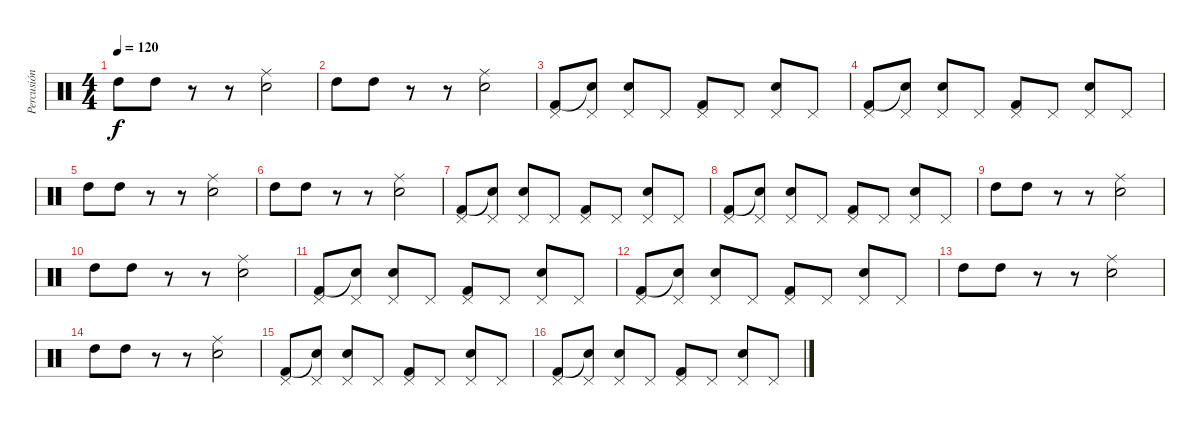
\track ("Percusión" "Percusión") {instrument percussion}
\staff {score}
\articulation defaults
\ts (4 4)
\tempo 120
\clef neutral
\ks c "High Tom (hit)".8{dy f} "High Tom (hit)".8
r.8 r.8 ("Snare (hit) 2" "Ride (middle)").2 |
"High Tom (hit)".8 "High Tom (hit)".8 r.8 r.8 ("Snare (hit) 2" "Ride (middle)").2 |
("Pedal Hi-Hat (hit)" "Kick (hit) 2").8 ("Pedal Hi-Hat (hit)" "Snare (hit)"{t}).8 ("Pedal Hi-Hat (hit)" "Snare (hit) 2").8 "Pedal Hi-Hat (hit)".8 ("Pedal Hi-Hat (hit)" "Kick (hit) 2").8 "Pedal Hi-Hat (hit)".8 ("Pedal Hi-Hat (hit)" "Snare (hit) 2").8 "Pedal Hi-Hat (hit)".8 |
("Pedal Hi-Hat (hit)" "Kick (hit) 2").8 ("Pedal Hi-Hat (hit)" "Snare (hit)"{t}).8 ("Pedal Hi-Hat (hit)" "Snare (hit) 2").8 "Pedal Hi-Hat (hit)".8 ("Pedal Hi-Hat (hit)" "Kick (hit) 2").8 "Pedal Hi-Hat (hit)".8 ("Pedal Hi-Hat (hit)" "Snare (hit) 2").8 "Pedal Hi-Hat (hit)".8 |
"High Tom (hit)".8 "High Tom (hit)".8 r.8 r.8 ("Snare (hit) 2" "Ride (middle)").2 |
"High Tom (hit)".8 "High Tom (hit)".8 r.8 r.8 ("Snare (hit) 2" "Ride (middle)").2 |
("Pedal Hi-Hat (hit)" "Kick (hit) 2").8 ("Pedal Hi-Hat (hit)" "Snare (hit)"{t}).8 ("Pedal Hi-Hat (hit)" "Snare (hit) 2").8 "Pedal Hi-Hat (hit)".8 ("Pedal Hi-Hat (hit)" "Kick (hit) 2").8 "Pedal Hi-Hat (hit)".8 ("Pedal Hi-Hat (hit)" "Snare (hit) 2").8 "Pedal Hi-Hat (hit)".8 |
("Pedal Hi-Hat (hit)" "Kick (hit) 2").8 ("Pedal Hi-Hat (hit)" "Snare (hit)"{t}).8 ("Pedal Hi-Hat (hit)" "Snare (hit) 2").8 "Pedal Hi-Hat (hit)".8 ("Pedal Hi-Hat (hit)" "Kick (hit) 2").8 "Pedal Hi-Hat (hit)".8 ("Pedal Hi-Hat (hit)" "Snare (hit) 2").8 "Pedal Hi-Hat (hit)".8 |
"High Tom (hit)".8 "High Tom (hit)".8 r.8 r.8 ("Snare (hit) 2" "Ride (middle)").2 |
"High Tom (hit)".8 "High Tom (hit)".8 r.8 r.8 ("Snare (hit) 2" "Ride (middle)").2 |
("Pedal Hi-Hat (hit)" "Kick (hit) 2").8 ("Pedal Hi-Hat (hit)" "Snare (hit)"{t}).8 ("Pedal Hi-Hat (hit)" "Snare (hit) 2").8 "Pedal Hi-Hat (hit)".8 ("Pedal Hi-Hat (hit)" "Kick (hit) 2").8 "Pedal Hi-Hat (hit)".8 ("Pedal Hi-Hat (hit)" "Snare (hit) 2").8 "Pedal Hi-Hat (hit)".8 |
("Pedal Hi-Hat (hit)" "Kick (hit) 2").8 ("Pedal Hi-Hat (hit)" "Snare (hit)"{t}).8 ("Pedal Hi-Hat (hit)" "Snare (hit) 2").8 "Pedal Hi-Hat (hit)".8 ("Pedal Hi-Hat (hit)" "Kick (hit) 2").8 "Pedal Hi-Hat (hit)".8 ("Pedal Hi-Hat (hit)" "Snare (hit) 2").8 "Pedal Hi-Hat (hit)".8 |
"High Tom (hit)".8 "High Tom (hit)".8 r.8 r.8 ("Snare (hit) 2" "Ride (middle)").2 |
"High Tom (hit)".8 "High Tom (hit)".8 r.8 r.8 ("Snare (hit) 2" "Ride (middle)").2 |
("Pedal Hi-Hat (hit)" "Kick (hit) 2").8 ("Pedal Hi-Hat (hit)" "Snare (hit)"{t}).8 ("Pedal Hi-Hat (hit)" "Snare (hit) 2").8 "Pedal Hi-Hat (hit)".8 ("Pedal Hi-Hat (hit)" "Kick (hit) 2").8 "Pedal Hi-Hat (hit)".8 ("Pedal Hi-Hat (hit)" "Snare (hit) 2").8 "Pedal Hi-Hat (hit)".8 |
("Pedal Hi-Hat (hit)" "Kick (hit) 2").8 ("Pedal Hi-Hat (hit)" "Snare (hit)"{t}).8 ("Pedal Hi-Hat (hit)" "Snare (hit) 2").8 "Pedal Hi-Hat (hit)".8 ("Pedal Hi-Hat (hit)" "Kick (hit) 2").8 "Pedal Hi-Hat (hit)".8 ("Pedal Hi-Hat (hit)" "Snare (hit) 2").8 "Pedal Hi-Hat (hit)".8
